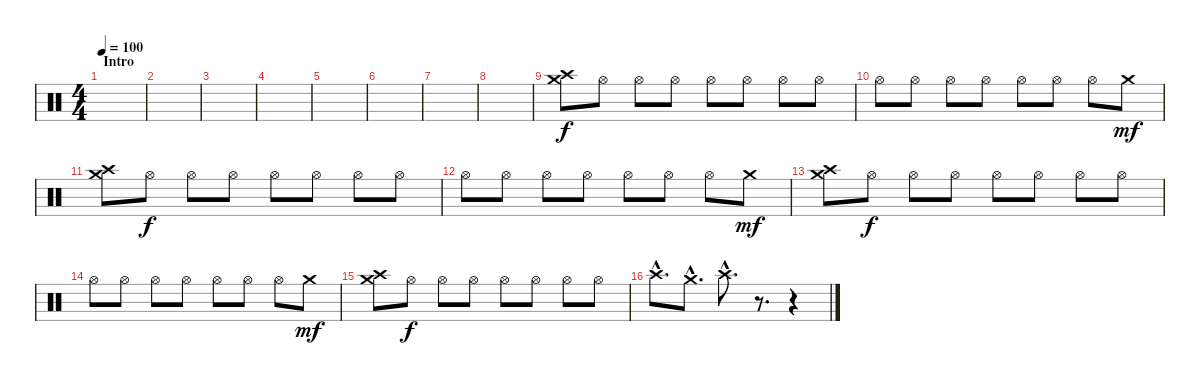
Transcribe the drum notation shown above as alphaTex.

\track "" {instrument percussion}
\staff {score}
\articulation defaults
\ts (4 4)
\section ("" "Intro")
\tempo 100
\clef neutral
\ks c
|
|
|
|
|
|
|
|
("Crash medium (hit)" "Crash high (hit)").8 "Hi-Hat (open)".8{dy f} "Hi-Hat (open)".8 "Hi-Hat (open)".8 "Hi-Hat (open)".8 "Hi-Hat (open)".8 "Hi-Hat (open)".8 "Hi-Hat (open)".8 |
"Hi-Hat (open)".8 "Hi-Hat (open)".8 "Hi-Hat (open)".8 "Hi-Hat (open)".8 "Hi-Hat (open)".8 "Hi-Hat (open)".8 "Hi-Hat (open)".8 "Crash medium (hit)".8{dy mf} |
("Crash medium (hit)" "Crash high (hit)").8 "Hi-Hat (open)".8{dy f} "Hi-Hat (open)".8 "Hi-Hat (open)".8 "Hi-Hat (open)".8 "Hi-Hat (open)".8 "Hi-Hat (open)".8 "Hi-Hat (open)".8 |
"Hi-Hat (open)".8 "Hi-Hat (open)".8 "Hi-Hat (open)".8 "Hi-Hat (open)".8 "Hi-Hat (open)".8 "Hi-Hat (open)".8 "Hi-Hat (open)".8 "Crash medium (hit)".8{dy mf} |
("Crash medium (hit)" "Crash high (hit)").8 "Hi-Hat (open)".8{dy f} "Hi-Hat (open)".8 "Hi-Hat (open)".8 "Hi-Hat (open)".8 "Hi-Hat (open)".8 "Hi-Hat (open)".8 "Hi-Hat (open)".8 |
"Hi-Hat (open)".8 "Hi-Hat (open)".8 "Hi-Hat (open)".8 "Hi-Hat (open)".8 "Hi-Hat (open)".8 "Hi-Hat (open)".8 "Hi-Hat (open)".8 "Crash medium (hit)".8{dy mf} |
("Crash medium (hit)" "Crash high (hit)").8 "Hi-Hat (open)".8{dy f} "Hi-Hat (open)".8 "Hi-Hat (open)".8 "Hi-Hat (open)".8 "Hi-Hat (open)".8 "Hi-Hat (open)".8 "Hi-Hat (open)".8 |
"Crash high (hit)"{hac}.8{d} "Crash medium (hit)"{hac}.8{d} "Crash high (hit)"{hac}.8{d} r.8{d} r.4
